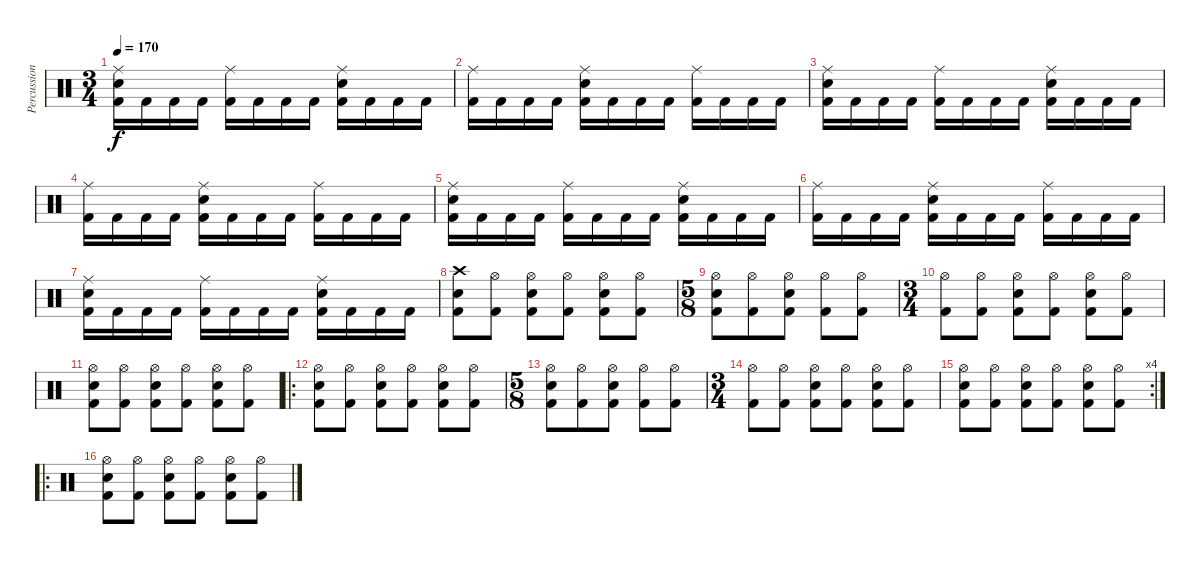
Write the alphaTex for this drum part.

\track ("Percussion" "Percussion") {instrument percussion}
\staff {score}
\articulation defaults
\ts (3 4)
\tempo 170
\clef neutral
\ks c
("Kick (hit) 2" "Snare (hit) 2" "Ride (middle)").16{dy f} "Kick (hit) 2".16 "Kick (hit) 2".16 "Kick (hit) 2".16 ("Kick (hit) 2" "Ride (middle)").16 "Kick (hit) 2".16 "Kick (hit) 2".16 "Kick (hit) 2".16 ("Kick (hit) 2" "Snare (hit) 2" "Ride (middle)").16 "Kick (hit) 2".16 "Kick (hit) 2".16 "Kick (hit) 2".16 |
("Kick (hit) 2" "Ride (middle)").16 "Kick (hit) 2".16 "Kick (hit) 2".16 "Kick (hit) 2".16 ("Kick (hit) 2" "Snare (hit) 2" "Ride (middle)").16 "Kick (hit) 2".16 "Kick (hit) 2".16 "Kick (hit) 2".16 ("Kick (hit) 2" "Ride (middle)").16 "Kick (hit) 2".16 "Kick (hit) 2".16 "Kick (hit) 2".16 |
("Kick (hit) 2" "Snare (hit) 2" "Ride (middle)").16 "Kick (hit) 2".16 "Kick (hit) 2".16 "Kick (hit) 2".16 ("Kick (hit) 2" "Ride (middle)").16 "Kick (hit) 2".16 "Kick (hit) 2".16 "Kick (hit) 2".16 ("Kick (hit) 2" "Snare (hit) 2" "Ride (middle)").16 "Kick (hit) 2".16 "Kick (hit) 2".16 "Kick (hit) 2".16 |
("Kick (hit) 2" "Ride (middle)").16 "Kick (hit) 2".16 "Kick (hit) 2".16 "Kick (hit) 2".16 ("Kick (hit) 2" "Snare (hit) 2" "Ride (middle)").16 "Kick (hit) 2".16 "Kick (hit) 2".16 "Kick (hit) 2".16 ("Kick (hit) 2" "Ride (middle)").16 "Kick (hit) 2".16 "Kick (hit) 2".16 "Kick (hit) 2".16 |
("Kick (hit) 2" "Snare (hit) 2" "Ride (middle)").16 "Kick (hit) 2".16 "Kick (hit) 2".16 "Kick (hit) 2".16 ("Kick (hit) 2" "Ride (middle)").16 "Kick (hit) 2".16 "Kick (hit) 2".16 "Kick (hit) 2".16 ("Kick (hit) 2" "Snare (hit) 2" "Ride (middle)").16 "Kick (hit) 2".16 "Kick (hit) 2".16 "Kick (hit) 2".16 |
("Kick (hit) 2" "Ride (middle)").16 "Kick (hit) 2".16 "Kick (hit) 2".16 "Kick (hit) 2".16 ("Kick (hit) 2" "Snare (hit) 2" "Ride (middle)").16 "Kick (hit) 2".16 "Kick (hit) 2".16 "Kick (hit) 2".16 ("Kick (hit) 2" "Ride (middle)").16 "Kick (hit) 2".16 "Kick (hit) 2".16 "Kick (hit) 2".16 |
("Kick (hit) 2" "Snare (hit) 2" "Ride (middle)").16 "Kick (hit) 2".16 "Kick (hit) 2".16 "Kick (hit) 2".16 ("Kick (hit) 2" "Ride (middle)").16 "Kick (hit) 2".16 "Kick (hit) 2".16 "Kick (hit) 2".16 ("Kick (hit) 2" "Snare (hit) 2" "Ride (middle)").16 "Kick (hit) 2".16 "Kick (hit) 2".16 "Kick (hit) 2".16 |
("Kick (hit) 2" "Snare (hit) 2" "Crash high (hit)").8 ("Kick (hit) 2" "Hi-Hat (open)").8 ("Kick (hit) 2" "Snare (hit) 2" "Hi-Hat (open)").8 ("Kick (hit) 2" "Hi-Hat (open)").8 ("Kick (hit) 2" "Snare (hit) 2" "Hi-Hat (open)").8 ("Kick (hit) 2" "Hi-Hat (open)").8 |
\ts (5 8)
("Kick (hit) 2" "Snare (hit) 2" "Hi-Hat (open)").8 ("Kick (hit) 2" "Hi-Hat (open)").8 ("Kick (hit) 2" "Snare (hit) 2" "Hi-Hat (open)").8 ("Kick (hit) 2" "Hi-Hat (open)").8 ("Kick (hit) 2" "Hi-Hat (open)").8 |
\ts (3 4)
("Kick (hit) 2" "Hi-Hat (open)").8 ("Kick (hit) 2" "Hi-Hat (open)").8 ("Kick (hit) 2" "Snare (hit) 2" "Hi-Hat (open)").8 ("Kick (hit) 2" "Hi-Hat (open)").8 ("Kick (hit) 2" "Snare (hit) 2" "Hi-Hat (open)").8 ("Kick (hit) 2" "Hi-Hat (open)").8 |
("Kick (hit) 2" "Snare (hit) 2" "Hi-Hat (open)").8 ("Kick (hit) 2" "Hi-Hat (open)").8 ("Kick (hit) 2" "Snare (hit) 2" "Hi-Hat (open)").8 ("Kick (hit) 2" "Hi-Hat (open)").8 ("Kick (hit) 2" "Snare (hit) 2" "Hi-Hat (open)").8 ("Kick (hit) 2" "Hi-Hat (open)").8 |
\ro
("Kick (hit) 2" "Snare (hit) 2" "Hi-Hat (open)").8 ("Kick (hit) 2" "Hi-Hat (open)").8 ("Kick (hit) 2" "Snare (hit) 2" "Hi-Hat (open)").8 ("Kick (hit) 2" "Hi-Hat (open)").8 ("Kick (hit) 2" "Snare (hit) 2" "Hi-Hat (open)").8 ("Kick (hit) 2" "Hi-Hat (open)").8 |
\ts (5 8)
("Kick (hit) 2" "Snare (hit) 2" "Hi-Hat (open)").8 ("Kick (hit) 2" "Hi-Hat (open)").8 ("Kick (hit) 2" "Snare (hit) 2" "Hi-Hat (open)").8 ("Kick (hit) 2" "Hi-Hat (open)").8 ("Kick (hit) 2" "Hi-Hat (open)").8 |
\ts (3 4)
("Kick (hit) 2" "Hi-Hat (open)").8 ("Kick (hit) 2" "Hi-Hat (open)").8 ("Kick (hit) 2" "Snare (hit) 2" "Hi-Hat (open)").8 ("Kick (hit) 2" "Hi-Hat (open)").8 ("Kick (hit) 2" "Snare (hit) 2" "Hi-Hat (open)").8 ("Kick (hit) 2" "Hi-Hat (open)").8 |
\rc 4
("Kick (hit) 2" "Snare (hit) 2" "Hi-Hat (open)").8 ("Kick (hit) 2" "Hi-Hat (open)").8 ("Kick (hit) 2" "Snare (hit) 2" "Hi-Hat (open)").8 ("Kick (hit) 2" "Hi-Hat (open)").8 ("Kick (hit) 2" "Snare (hit) 2" "Hi-Hat (open)").8 ("Kick (hit) 2" "Hi-Hat (open)").8 |
\ro
("Kick (hit) 2" "Snare (hit) 2" "Hi-Hat (open)").8 ("Kick (hit) 2" "Hi-Hat (open)").8 ("Kick (hit) 2" "Snare (hit) 2" "Hi-Hat (open)").8 ("Kick (hit) 2" "Hi-Hat (open)").8 ("Kick (hit) 2" "Snare (hit) 2" "Hi-Hat (open)").8 ("Kick (hit) 2" "Hi-Hat (open)").8
